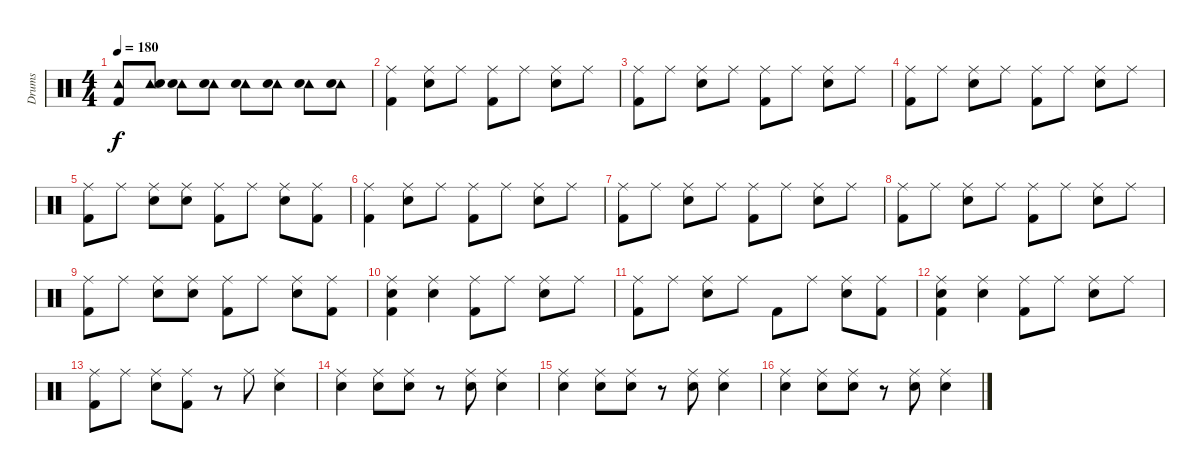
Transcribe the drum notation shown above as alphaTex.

\track ("Drums" "Drums") {instrument percussion}
\staff {score}
\articulation defaults
\ts (4 4)
\tempo 180
\clef neutral
\ks c
("Tambourine (hit)" "Kick (hit) 2").8{dy f} ("Tambourine (hit)" "Snare (hit) 2").8 ("Tambourine (hit)" "Snare (hit) 2").8 ("Tambourine (hit)" "Snare (hit) 2").8 ("Tambourine (hit)" "Snare (hit) 2").8 ("Tambourine (hit)" "Snare (hit) 2").8 ("Tambourine (hit)" "Snare (hit) 2").8 ("Tambourine (hit)" "Snare (hit) 2").8 |
("Ride (middle)" "Kick (hit) 2").4 ("Ride (middle)" "Snare (hit) 2").8 "Ride (middle)".8 ("Ride (middle)" "Kick (hit) 2").8 "Ride (middle)".8 ("Ride (middle)" "Snare (hit) 2").8 "Ride (middle)".8 |
("Ride (middle)" "Kick (hit) 2").8 "Ride (middle)".8 ("Ride (middle)" "Snare (hit) 2").8 "Ride (middle)".8 ("Ride (middle)" "Kick (hit) 2").8 "Ride (middle)".8 ("Ride (middle)" "Snare (hit) 2").8 "Ride (middle)".8 |
("Ride (middle)" "Kick (hit) 2").8 "Ride (middle)".8 ("Ride (middle)" "Snare (hit) 2").8 "Ride (middle)".8 ("Ride (middle)" "Kick (hit) 2").8 "Ride (middle)".8 ("Ride (middle)" "Snare (hit) 2").8 "Ride (middle)".8 |
("Ride (middle)" "Kick (hit) 2").8 "Ride (middle)".8 ("Ride (middle)" "Snare (hit) 2").8 ("Ride (middle)" "Snare (hit) 2").8 ("Ride (middle)" "Kick (hit) 2").8 "Ride (middle)".8 ("Ride (middle)" "Snare (hit) 2").8 ("Ride (middle)" "Kick (hit) 2").8 |
("Ride (middle)" "Kick (hit) 2").4 ("Ride (middle)" "Snare (hit) 2").8 "Ride (middle)".8 ("Ride (middle)" "Kick (hit) 2").8 "Ride (middle)".8 ("Ride (middle)" "Snare (hit) 2").8 "Ride (middle)".8 |
("Ride (middle)" "Kick (hit) 2").8 "Ride (middle)".8 ("Ride (middle)" "Snare (hit) 2").8 "Ride (middle)".8 ("Ride (middle)" "Kick (hit) 2").8 "Ride (middle)".8 ("Ride (middle)" "Snare (hit) 2").8 "Ride (middle)".8 |
("Ride (middle)" "Kick (hit) 2").8 "Ride (middle)".8 ("Ride (middle)" "Snare (hit) 2").8 "Ride (middle)".8 ("Ride (middle)" "Kick (hit) 2").8 "Ride (middle)".8 ("Ride (middle)" "Snare (hit) 2").8 "Ride (middle)".8 |
("Ride (middle)" "Kick (hit) 2").8 "Ride (middle)".8 ("Ride (middle)" "Snare (hit) 2").8 ("Ride (middle)" "Snare (hit) 2").8 ("Ride (middle)" "Kick (hit) 2").8 "Ride (middle)".8 ("Ride (middle)" "Snare (hit) 2").8 ("Ride (middle)" "Kick (hit) 2").8 |
("Ride (middle)" "Snare (hit) 2" "Kick (hit) 2").4 ("Ride (middle)" "Snare (hit) 2").4 ("Ride (middle)" "Kick (hit) 2").8 "Ride (middle)".8 ("Ride (middle)" "Snare (hit) 2").8 "Ride (middle)".8 |
("Ride (middle)" "Kick (hit) 2").8 "Ride (middle)".8 ("Ride (middle)" "Snare (hit) 2").8 "Ride (middle)".8 "Kick (hit) 2".8 "Ride (middle)".8 ("Ride (middle)" "Snare (hit) 2").8 ("Ride (middle)" "Kick (hit) 2").8 |
("Ride (middle)" "Snare (hit) 2" "Kick (hit) 2").4 ("Ride (middle)" "Snare (hit) 2").4 ("Ride (middle)" "Kick (hit) 2").8 "Ride (middle)".8 ("Ride (middle)" "Snare (hit) 2").8 "Ride (middle)".8 |
("Ride (middle)" "Kick (hit) 2").8 "Ride (middle)".8 ("Ride (middle)" "Snare (hit) 2").8 ("Ride (middle)" "Kick (hit) 2").8 r.8 "Ride (middle)".8 ("Ride (middle)" "Snare (hit) 2").4 |
("Ride (middle)" "Snare (hit) 2").4 ("Ride (middle)" "Snare (hit) 2").8 ("Ride (middle)" "Snare (hit) 2").8 r.8 ("Ride (middle)" "Snare (hit) 2").8 ("Ride (middle)" "Snare (hit) 2").4 |
("Ride (middle)" "Snare (hit) 2").4 ("Ride (middle)" "Snare (hit) 2").8 ("Ride (middle)" "Snare (hit) 2").8 r.8 ("Ride (middle)" "Snare (hit) 2").8 ("Ride (middle)" "Snare (hit) 2").4 |
("Ride (middle)" "Snare (hit) 2").4 ("Ride (middle)" "Snare (hit) 2").8 ("Ride (middle)" "Snare (hit) 2").8 r.8 ("Ride (middle)" "Snare (hit) 2").8 ("Ride (middle)" "Snare (hit) 2").4
